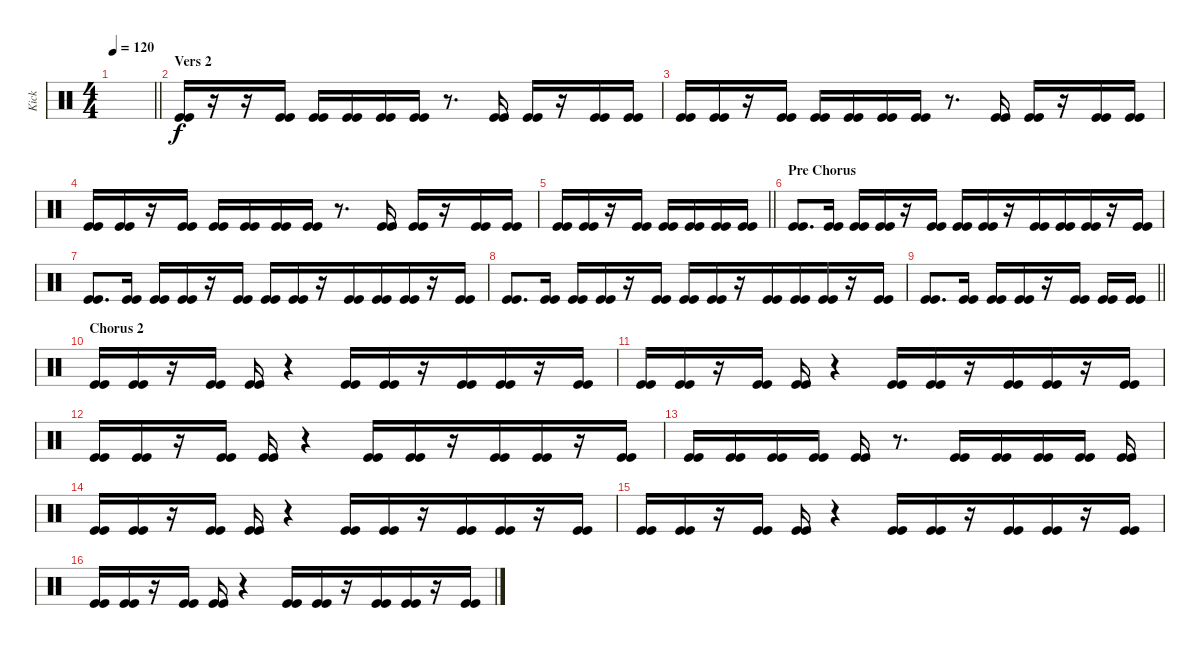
\track ("Kick" "Kick") {instrument percussion}
\staff {score}
\articulation defaults
\ts (4 4)
\tempo 120
\clef neutral
\barLineRight lightlight
\ks c
|
\section ("" "Vers 2")
("Kick (hit)" "Kick (hit)").16 r.16{beam merge} r.16{beam merge} ("Kick (hit)" "Kick (hit)").16 ("Kick (hit)" "Kick (hit)").16 ("Kick (hit)" "Kick (hit)").16 ("Kick (hit)" "Kick (hit)").16 ("Kick (hit)" "Kick (hit)").16 r.8{d beam merge} ("Kick (hit)" "Kick (hit)").16 ("Kick (hit)" "Kick (hit)").16 r.16{beam merge} ("Kick (hit)" "Kick (hit)").16 ("Kick (hit)" "Kick (hit)").16 |
("Kick (hit)" "Kick (hit)").16 ("Kick (hit)" "Kick (hit)").16{beam merge} r.16{beam merge} ("Kick (hit)" "Kick (hit)").16 ("Kick (hit)" "Kick (hit)").16 ("Kick (hit)" "Kick (hit)").16 ("Kick (hit)" "Kick (hit)").16 ("Kick (hit)" "Kick (hit)").16 r.8{d beam merge} ("Kick (hit)" "Kick (hit)").16 ("Kick (hit)" "Kick (hit)").16 r.16{beam merge} ("Kick (hit)" "Kick (hit)").16 ("Kick (hit)" "Kick (hit)").16 |
("Kick (hit)" "Kick (hit)").16 ("Kick (hit)" "Kick (hit)").16{beam merge} r.16{beam merge} ("Kick (hit)" "Kick (hit)").16 ("Kick (hit)" "Kick (hit)").16 ("Kick (hit)" "Kick (hit)").16 ("Kick (hit)" "Kick (hit)").16 ("Kick (hit)" "Kick (hit)").16 r.8{d} ("Kick (hit)" "Kick (hit)").16 ("Kick (hit)" "Kick (hit)").16 r.16{beam merge} ("Kick (hit)" "Kick (hit)").16 ("Kick (hit)" "Kick (hit)").16 |
\barLineRight lightlight
("Kick (hit)" "Kick (hit)").16 ("Kick (hit)" "Kick (hit)").16{beam merge} r.16{beam merge} ("Kick (hit)" "Kick (hit)").16 ("Kick (hit)" "Kick (hit)").16 ("Kick (hit)" "Kick (hit)").16 ("Kick (hit)" "Kick (hit)").16 ("Kick (hit)" "Kick (hit)").16 |
\section ("" "Pre Chorus")
("Kick (hit)" "Kick (hit)").8{d beam merge} ("Kick (hit)" "Kick (hit)").16 ("Kick (hit)" "Kick (hit)").16 ("Kick (hit)" "Kick (hit)").16 r.16{beam merge} ("Kick (hit)" "Kick (hit)").16 ("Kick (hit)" "Kick (hit)").16 ("Kick (hit)" "Kick (hit)").16{beam merge} r.16 ("Kick (hit)" "Kick (hit)").16{beam merge} ("Kick (hit)" "Kick (hit)").16 ("Kick (hit)" "Kick (hit)").16{beam merge} r.16 ("Kick (hit)" "Kick (hit)").16 |
("Kick (hit)" "Kick (hit)").8{d beam merge} ("Kick (hit)" "Kick (hit)").16 ("Kick (hit)" "Kick (hit)").16 ("Kick (hit)" "Kick (hit)").16 r.16{beam merge} ("Kick (hit)" "Kick (hit)").16 ("Kick (hit)" "Kick (hit)").16 ("Kick (hit)" "Kick (hit)").16{beam merge} r.16 ("Kick (hit)" "Kick (hit)").16{beam merge} ("Kick (hit)" "Kick (hit)").16 ("Kick (hit)" "Kick (hit)").16{beam merge} r.16 ("Kick (hit)" "Kick (hit)").16 |
("Kick (hit)" "Kick (hit)").8{d beam merge} ("Kick (hit)" "Kick (hit)").16 ("Kick (hit)" "Kick (hit)").16 ("Kick (hit)" "Kick (hit)").16 r.16{beam merge} ("Kick (hit)" "Kick (hit)").16 ("Kick (hit)" "Kick (hit)").16 ("Kick (hit)" "Kick (hit)").16{beam merge} r.16 ("Kick (hit)" "Kick (hit)").16{beam merge} ("Kick (hit)" "Kick (hit)").16 ("Kick (hit)" "Kick (hit)").16{beam merge} r.16 ("Kick (hit)" "Kick (hit)").16 |
\barLineRight lightlight
("Kick (hit)" "Kick (hit)").8{d beam merge} ("Kick (hit)" "Kick (hit)").16 ("Kick (hit)" "Kick (hit)").16 ("Kick (hit)" "Kick (hit)").16 r.16{beam merge} ("Kick (hit)" "Kick (hit)").16 ("Kick (hit)" "Kick (hit)").16 ("Kick (hit)" "Kick (hit)").16 |
\section ("" "Chorus 2")
("Kick (hit)" "Kick (hit)").16 ("Kick (hit)" "Kick (hit)").16 r.16 ("Kick (hit)" "Kick (hit)").16 ("Kick (hit)" "Kick (hit)").16 r.4{beam merge} ("Kick (hit)" "Kick (hit)").16 ("Kick (hit)" "Kick (hit)").16{beam merge} r.16{beam merge} ("Kick (hit)" "Kick (hit)").16 ("Kick (hit)" "Kick (hit)").16{beam merge} r.16 ("Kick (hit)" "Kick (hit)").16 |
("Kick (hit)" "Kick (hit)").16 ("Kick (hit)" "Kick (hit)").16 r.16 ("Kick (hit)" "Kick (hit)").16 ("Kick (hit)" "Kick (hit)").16 r.4{beam merge} ("Kick (hit)" "Kick (hit)").16 ("Kick (hit)" "Kick (hit)").16{beam merge} r.16{beam merge} ("Kick (hit)" "Kick (hit)").16 ("Kick (hit)" "Kick (hit)").16{beam merge} r.16 ("Kick (hit)" "Kick (hit)").16 |
("Kick (hit)" "Kick (hit)").16 ("Kick (hit)" "Kick (hit)").16 r.16 ("Kick (hit)" "Kick (hit)").16 ("Kick (hit)" "Kick (hit)").16 r.4{beam merge} ("Kick (hit)" "Kick (hit)").16 ("Kick (hit)" "Kick (hit)").16{beam merge} r.16{beam merge} ("Kick (hit)" "Kick (hit)").16 ("Kick (hit)" "Kick (hit)").16{beam merge} r.16 ("Kick (hit)" "Kick (hit)").16 |
("Kick (hit)" "Kick (hit)").16 ("Kick (hit)" "Kick (hit)").16 ("Kick (hit)" "Kick (hit)").16 ("Kick (hit)" "Kick (hit)").16 ("Kick (hit)" "Kick (hit)").16 r.8{d beam merge} ("Kick (hit)" "Kick (hit)").16 ("Kick (hit)" "Kick (hit)").16{beam merge} ("Kick (hit)" "Kick (hit)").16{beam merge} ("Kick (hit)" "Kick (hit)").16 ("Kick (hit)" "Kick (hit)").16 |
("Kick (hit)" "Kick (hit)").16 ("Kick (hit)" "Kick (hit)").16 r.16 ("Kick (hit)" "Kick (hit)").16 ("Kick (hit)" "Kick (hit)").16 r.4{beam merge} ("Kick (hit)" "Kick (hit)").16 ("Kick (hit)" "Kick (hit)").16{beam merge} r.16{beam merge} ("Kick (hit)" "Kick (hit)").16 ("Kick (hit)" "Kick (hit)").16{beam merge} r.16 ("Kick (hit)" "Kick (hit)").16 |
("Kick (hit)" "Kick (hit)").16 ("Kick (hit)" "Kick (hit)").16 r.16 ("Kick (hit)" "Kick (hit)").16 ("Kick (hit)" "Kick (hit)").16 r.4{beam merge} ("Kick (hit)" "Kick (hit)").16 ("Kick (hit)" "Kick (hit)").16{beam merge} r.16{beam merge} ("Kick (hit)" "Kick (hit)").16 ("Kick (hit)" "Kick (hit)").16{beam merge} r.16 ("Kick (hit)" "Kick (hit)").16 |
("Kick (hit)" "Kick (hit)").16 ("Kick (hit)" "Kick (hit)").16 r.16 ("Kick (hit)" "Kick (hit)").16 ("Kick (hit)" "Kick (hit)").16 r.4{beam merge} ("Kick (hit)" "Kick (hit)").16 ("Kick (hit)" "Kick (hit)").16{beam merge} r.16{beam merge} ("Kick (hit)" "Kick (hit)").16 ("Kick (hit)" "Kick (hit)").16{beam merge} r.16 ("Kick (hit)" "Kick (hit)").16
